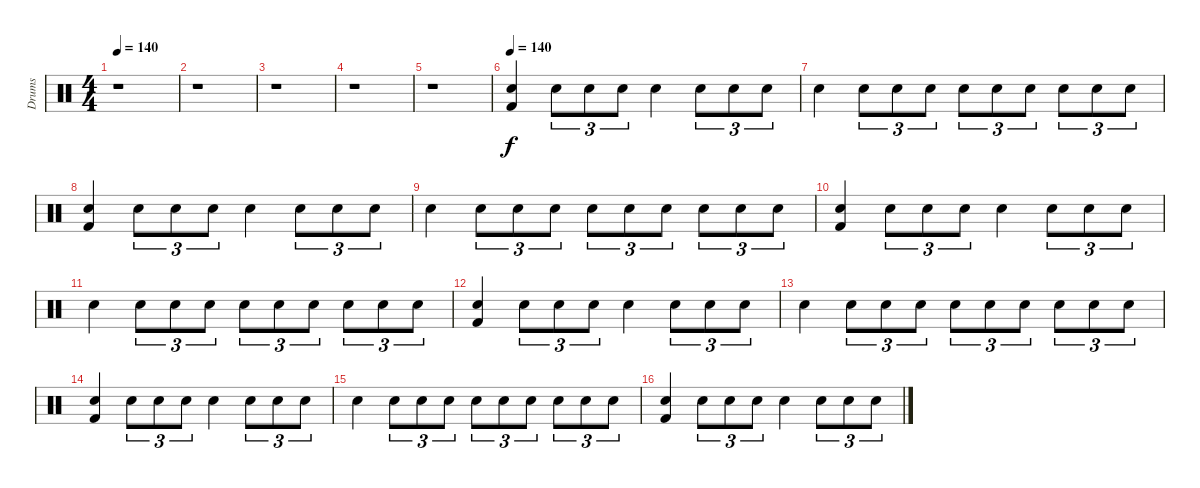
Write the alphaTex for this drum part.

\track ("Drums" "Drums") {instrument percussion}
\staff {score}
\articulation defaults
\ts (4 4)
\tempo 140
\clef neutral
\ks c
r.1{dy f} |
r.1 |
r.1 |
r.1 |
r.1 |
\section ("" "")
\tempo 140
("Kick (hit) 2" "Electric Snare (hit)").4{volume 12} "Electric Snare (hit)".8{tu (3 2)} "Electric Snare (hit)".8{tu (3 2)} "Electric Snare (hit)".8{tu (3 2)} "Electric Snare (hit)".4 "Electric Snare (hit)".8{tu (3 2)} "Electric Snare (hit)".8{tu (3 2)} "Electric Snare (hit)".8{tu (3 2)} |
"Electric Snare (hit)".4 "Electric Snare (hit)".8{tu (3 2)} "Electric Snare (hit)".8{tu (3 2)} "Electric Snare (hit)".8{tu (3 2)} "Electric Snare (hit)".8{tu (3 2)} "Electric Snare (hit)".8{tu (3 2)} "Electric Snare (hit)".8{tu (3 2)} "Electric Snare (hit)".8{tu (3 2)} "Electric Snare (hit)".8{tu (3 2)} "Electric Snare (hit)".8{tu (3 2)} |
("Kick (hit) 2" "Electric Snare (hit)").4 "Electric Snare (hit)".8{tu (3 2)} "Electric Snare (hit)".8{tu (3 2)} "Electric Snare (hit)".8{tu (3 2)} "Electric Snare (hit)".4 "Electric Snare (hit)".8{tu (3 2)} "Electric Snare (hit)".8{tu (3 2)} "Electric Snare (hit)".8{tu (3 2)} |
"Electric Snare (hit)".4 "Electric Snare (hit)".8{tu (3 2)} "Electric Snare (hit)".8{tu (3 2)} "Electric Snare (hit)".8{tu (3 2)} "Electric Snare (hit)".8{tu (3 2)} "Electric Snare (hit)".8{tu (3 2)} "Electric Snare (hit)".8{tu (3 2)} "Electric Snare (hit)".8{tu (3 2)} "Electric Snare (hit)".8{tu (3 2)} "Electric Snare (hit)".8{tu (3 2)} |
("Kick (hit) 2" "Electric Snare (hit)").4 "Electric Snare (hit)".8{tu (3 2)} "Electric Snare (hit)".8{tu (3 2)} "Electric Snare (hit)".8{tu (3 2)} "Electric Snare (hit)".4 "Electric Snare (hit)".8{tu (3 2)} "Electric Snare (hit)".8{tu (3 2)} "Electric Snare (hit)".8{tu (3 2)} |
"Electric Snare (hit)".4 "Electric Snare (hit)".8{tu (3 2)} "Electric Snare (hit)".8{tu (3 2)} "Electric Snare (hit)".8{tu (3 2)} "Electric Snare (hit)".8{tu (3 2)} "Electric Snare (hit)".8{tu (3 2)} "Electric Snare (hit)".8{tu (3 2)} "Electric Snare (hit)".8{tu (3 2)} "Electric Snare (hit)".8{tu (3 2)} "Electric Snare (hit)".8{tu (3 2)} |
("Kick (hit) 2" "Electric Snare (hit)").4 "Electric Snare (hit)".8{tu (3 2)} "Electric Snare (hit)".8{tu (3 2)} "Electric Snare (hit)".8{tu (3 2)} "Electric Snare (hit)".4 "Electric Snare (hit)".8{tu (3 2)} "Electric Snare (hit)".8{tu (3 2)} "Electric Snare (hit)".8{tu (3 2)} |
"Electric Snare (hit)".4 "Electric Snare (hit)".8{tu (3 2)} "Electric Snare (hit)".8{tu (3 2)} "Electric Snare (hit)".8{tu (3 2)} "Electric Snare (hit)".8{tu (3 2)} "Electric Snare (hit)".8{tu (3 2)} "Electric Snare (hit)".8{tu (3 2)} "Electric Snare (hit)".8{tu (3 2)} "Electric Snare (hit)".8{tu (3 2)} "Electric Snare (hit)".8{tu (3 2)} |
("Kick (hit) 2" "Electric Snare (hit)").4 "Electric Snare (hit)".8{tu (3 2)} "Electric Snare (hit)".8{tu (3 2)} "Electric Snare (hit)".8{tu (3 2)} "Electric Snare (hit)".4 "Electric Snare (hit)".8{tu (3 2)} "Electric Snare (hit)".8{tu (3 2)} "Electric Snare (hit)".8{tu (3 2)} |
"Electric Snare (hit)".4 "Electric Snare (hit)".8{tu (3 2)} "Electric Snare (hit)".8{tu (3 2)} "Electric Snare (hit)".8{tu (3 2)} "Electric Snare (hit)".8{tu (3 2)} "Electric Snare (hit)".8{tu (3 2)} "Electric Snare (hit)".8{tu (3 2)} "Electric Snare (hit)".8{tu (3 2)} "Electric Snare (hit)".8{tu (3 2)} "Electric Snare (hit)".8{tu (3 2)} |
("Kick (hit) 2" "Electric Snare (hit)").4 "Electric Snare (hit)".8{tu (3 2)} "Electric Snare (hit)".8{tu (3 2)} "Electric Snare (hit)".8{tu (3 2)} "Electric Snare (hit)".4 "Electric Snare (hit)".8{tu (3 2)} "Electric Snare (hit)".8{tu (3 2)} "Electric Snare (hit)".8{tu (3 2)}
